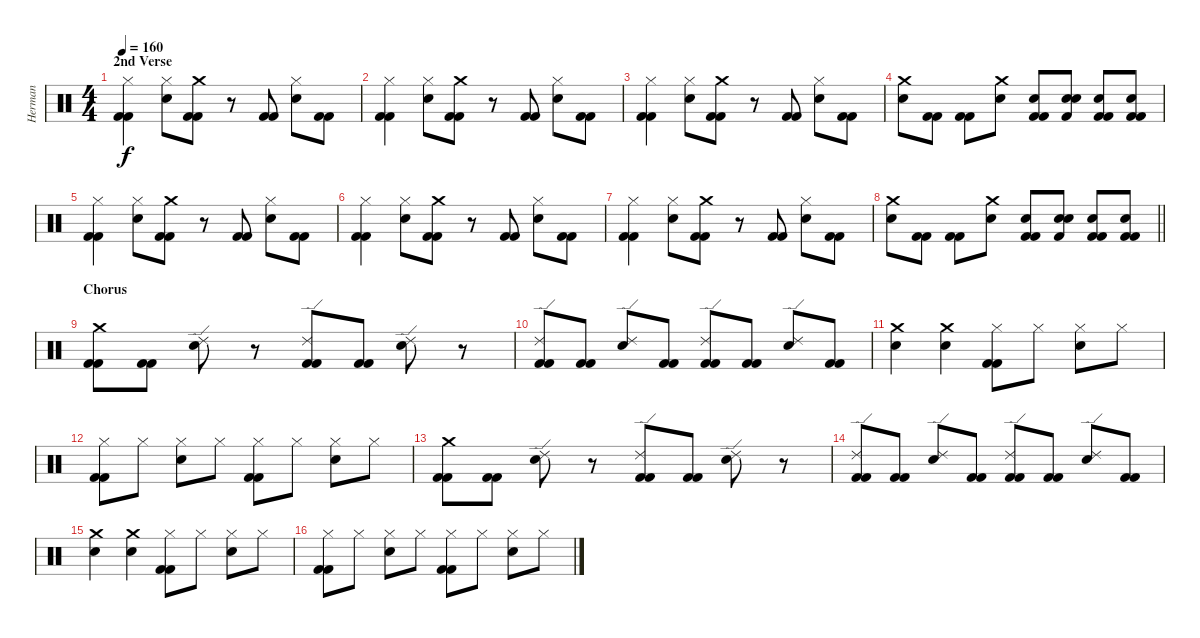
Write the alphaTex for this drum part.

\track ("Herman" "Herman") {instrument percussion}
\staff {score}
\articulation defaults
\ts (4 4)
\section ("" "2nd Verse")
\tempo 160
\clef neutral
\ks c
("Hi-Hat (closed)" "Kick (hit) 2" "Kick (hit) 2").4{dy f} ("Electric Snare (hit)" "Hi-Hat (closed)").8 ("Crash medium (hit)" "Kick (hit) 2" "Kick (hit) 2").8 r.8 ("Kick (hit) 2" "Kick (hit) 2").8 ("Hi-Hat (closed)" "Electric Snare (hit)").8 ("Kick (hit) 2" "Kick (hit) 2").8 |
("Hi-Hat (closed)" "Kick (hit) 2" "Kick (hit) 2").4 ("Electric Snare (hit)" "Hi-Hat (closed)").8 ("Crash medium (hit)" "Kick (hit) 2" "Kick (hit) 2").8 r.8 ("Kick (hit) 2" "Kick (hit) 2").8 ("Hi-Hat (closed)" "Electric Snare (hit)").8 ("Kick (hit) 2" "Kick (hit) 2").8 |
("Hi-Hat (closed)" "Kick (hit) 2" "Kick (hit) 2").4 ("Electric Snare (hit)" "Hi-Hat (closed)").8 ("Crash medium (hit)" "Kick (hit) 2" "Kick (hit) 2").8 r.8 ("Kick (hit) 2" "Kick (hit) 2").8 ("Hi-Hat (closed)" "Electric Snare (hit)").8 ("Kick (hit) 2" "Kick (hit) 2").8 |
("Crash medium (hit)" "Electric Snare (hit)").8 ("Kick (hit) 2" "Kick (hit) 2").8 ("Kick (hit) 2" "Kick (hit) 2").8 ("Crash medium (hit)" "Electric Snare (hit)").8 ("Kick (hit) 2" "Electric Snare (hit)" "Kick (hit) 2").8 ("Electric Snare (hit)" "Electric Snare (hit)" "Kick (hit) 2").8 ("Kick (hit) 2" "Kick (hit) 2" "Electric Snare (hit)").8 ("Electric Snare (hit)" "Kick (hit) 2" "Kick (hit) 2").8 |
("Hi-Hat (closed)" "Kick (hit) 2" "Kick (hit) 2").4 ("Electric Snare (hit)" "Hi-Hat (closed)").8 ("Crash medium (hit)" "Kick (hit) 2" "Kick (hit) 2").8 r.8 ("Kick (hit) 2" "Kick (hit) 2").8 ("Hi-Hat (closed)" "Electric Snare (hit)").8 ("Kick (hit) 2" "Kick (hit) 2").8 |
("Hi-Hat (closed)" "Kick (hit) 2" "Kick (hit) 2").4 ("Electric Snare (hit)" "Hi-Hat (closed)").8 ("Crash medium (hit)" "Kick (hit) 2" "Kick (hit) 2").8 r.8 ("Kick (hit) 2" "Kick (hit) 2").8 ("Hi-Hat (closed)" "Electric Snare (hit)").8 ("Kick (hit) 2" "Kick (hit) 2").8 |
("Hi-Hat (closed)" "Kick (hit) 2" "Kick (hit) 2").4 ("Electric Snare (hit)" "Hi-Hat (closed)").8 ("Crash medium (hit)" "Kick (hit) 2" "Kick (hit) 2").8 r.8 ("Kick (hit) 2" "Kick (hit) 2").8 ("Hi-Hat (closed)" "Electric Snare (hit)").8 ("Kick (hit) 2" "Kick (hit) 2").8 |
\barLineRight lightlight
("Crash medium (hit)" "Electric Snare (hit)").8 ("Kick (hit) 2" "Kick (hit) 2").8 ("Kick (hit) 2" "Kick (hit) 2").8 ("Crash medium (hit)" "Electric Snare (hit)").8 ("Kick (hit) 2" "Electric Snare (hit)" "Kick (hit) 2").8 ("Electric Snare (hit)" "Electric Snare (hit)" "Kick (hit) 2").8 ("Kick (hit) 2" "Kick (hit) 2" "Electric Snare (hit)").8 ("Electric Snare (hit)" "Kick (hit) 2" "Kick (hit) 2").8 |
\section ("" "Chorus")
("Crash medium (hit)" "Kick (hit) 2" "Kick (hit) 2").8 ("Kick (hit) 2" "Kick (hit) 2").8 ("Electric Snare (hit)" "Ride (edge) 2").8 r.8 ("Ride (edge) 2" "Kick (hit) 2" "Kick (hit) 2").8 ("Kick (hit) 2" "Kick (hit) 2").8 ("Electric Snare (hit)" "Ride (edge) 2").8 r.8 |
("Kick (hit) 2" "Kick (hit) 2" "Ride (edge) 2").8 ("Kick (hit) 2" "Kick (hit) 2").8 ("Electric Snare (hit)" "Ride (edge) 2").8 ("Kick (hit) 2" "Kick (hit) 2").8 ("Kick (hit) 2" "Kick (hit) 2" "Ride (edge) 2").8 ("Kick (hit) 2" "Kick (hit) 2").8 ("Electric Snare (hit)" "Ride (edge) 2").8 ("Kick (hit) 2" "Kick (hit) 2").8 |
("Crash medium (hit)" "Electric Snare (hit)").4 ("Crash medium (hit)" "Electric Snare (hit)").4 ("Hi-Hat (closed)" "Kick (hit) 2" "Kick (hit) 2").8 "Hi-Hat (closed)".8 ("Electric Snare (hit)" "Hi-Hat (closed)").8 "Hi-Hat (closed)".8 |
("Kick (hit) 2" "Kick (hit) 2" "Hi-Hat (closed)").8 "Hi-Hat (closed)".8 ("Hi-Hat (closed)" "Electric Snare (hit)").8 "Hi-Hat (closed)".8 ("Hi-Hat (closed)" "Kick (hit) 2" "Kick (hit) 2").8 "Hi-Hat (closed)".8 ("Electric Snare (hit)" "Hi-Hat (closed)").8 "Hi-Hat (closed)".8 |
("Crash medium (hit)" "Kick (hit) 2" "Kick (hit) 2").8 ("Kick (hit) 2" "Kick (hit) 2").8 ("Electric Snare (hit)" "Ride (edge) 2").8 r.8 ("Ride (edge) 2" "Kick (hit) 2" "Kick (hit) 2").8 ("Kick (hit) 2" "Kick (hit) 2").8 ("Electric Snare (hit)" "Ride (edge) 2").8 r.8 |
("Kick (hit) 2" "Kick (hit) 2" "Ride (edge) 2").8 ("Kick (hit) 2" "Kick (hit) 2").8 ("Electric Snare (hit)" "Ride (edge) 2").8 ("Kick (hit) 2" "Kick (hit) 2").8 ("Kick (hit) 2" "Kick (hit) 2" "Ride (edge) 2").8 ("Kick (hit) 2" "Kick (hit) 2").8 ("Electric Snare (hit)" "Ride (edge) 2").8 ("Kick (hit) 2" "Kick (hit) 2").8 |
("Crash medium (hit)" "Electric Snare (hit)").4 ("Crash medium (hit)" "Electric Snare (hit)").4 ("Hi-Hat (closed)" "Kick (hit) 2" "Kick (hit) 2").8 "Hi-Hat (closed)".8 ("Electric Snare (hit)" "Hi-Hat (closed)").8 "Hi-Hat (closed)".8 |
("Kick (hit) 2" "Kick (hit) 2" "Hi-Hat (closed)").8 "Hi-Hat (closed)".8 ("Hi-Hat (closed)" "Electric Snare (hit)").8 "Hi-Hat (closed)".8 ("Hi-Hat (closed)" "Kick (hit) 2" "Kick (hit) 2").8 "Hi-Hat (closed)".8 ("Electric Snare (hit)" "Hi-Hat (closed)").8 "Hi-Hat (closed)".8
